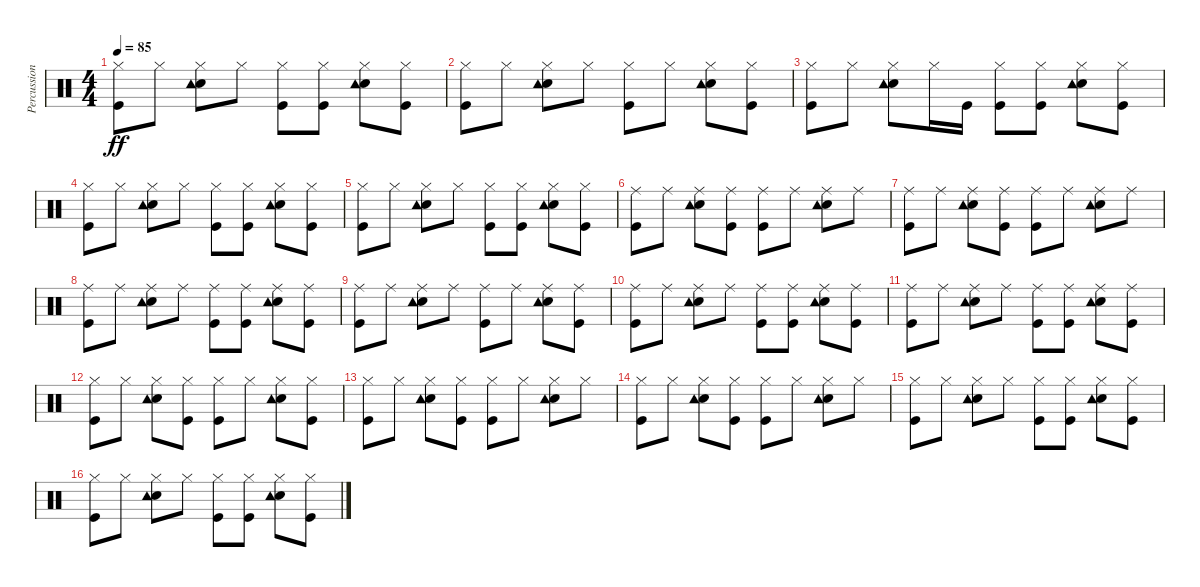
\track ("Percussion" "Percussion") {instrument percussion}
\staff {score}
\articulation defaults
\ts (4 4)
\tempo 85
\clef neutral
\ks c
("Kick (hit)" "Hi-Hat (closed)").8{dy ff} "Hi-Hat (closed)".8 ("Snare (hit) 2" "Hi-Hat (closed)" "Tambourine (hit)").8 "Hi-Hat (closed)".8 ("Kick (hit)" "Hi-Hat (closed)").8 ("Kick (hit)" "Hi-Hat (closed)").8 ("Snare (hit) 2" "Hi-Hat (closed)" "Tambourine (hit)").8 ("Kick (hit)" "Hi-Hat (closed)").8 |
("Kick (hit)" "Hi-Hat (closed)").8 "Hi-Hat (closed)".8 ("Snare (hit) 2" "Hi-Hat (closed)" "Tambourine (hit)").8 "Hi-Hat (closed)".8 ("Kick (hit)" "Hi-Hat (closed)").8 "Hi-Hat (closed)".8 ("Snare (hit) 2" "Hi-Hat (closed)" "Tambourine (hit)").8 ("Kick (hit)" "Hi-Hat (closed)").8 |
("Kick (hit)" "Hi-Hat (closed)").8 "Hi-Hat (closed)".8 ("Snare (hit) 2" "Hi-Hat (closed)" "Tambourine (hit)").8 "Hi-Hat (closed)".16 "Kick (hit)".16 ("Kick (hit)" "Hi-Hat (closed)").8 ("Kick (hit)" "Hi-Hat (closed)").8 ("Snare (hit) 2" "Hi-Hat (closed)" "Tambourine (hit)").8 ("Kick (hit)" "Hi-Hat (closed)").8 |
("Kick (hit)" "Hi-Hat (closed)").8 "Hi-Hat (closed)".8 ("Snare (hit) 2" "Hi-Hat (closed)" "Tambourine (hit)").8 "Hi-Hat (closed)".8 ("Kick (hit)" "Hi-Hat (closed)").8 ("Kick (hit)" "Hi-Hat (closed)").8 ("Snare (hit) 2" "Hi-Hat (closed)" "Tambourine (hit)").8 ("Kick (hit)" "Hi-Hat (closed)").8 |
("Kick (hit)" "Hi-Hat (closed)").8 "Hi-Hat (closed)".8 ("Snare (hit) 2" "Hi-Hat (closed)" "Tambourine (hit)").8 "Hi-Hat (closed)".8 ("Kick (hit)" "Hi-Hat (closed)").8 ("Kick (hit)" "Hi-Hat (closed)").8 ("Snare (hit) 2" "Hi-Hat (closed)" "Tambourine (hit)").8 ("Kick (hit)" "Hi-Hat (closed)").8 |
("Kick (hit)" "Ride (middle)").8 "Ride (middle)".8 ("Snare (hit) 2" "Ride (middle)" "Tambourine (hit)").8 ("Kick (hit)" "Ride (middle)").8 ("Kick (hit)" "Ride (middle)").8 "Ride (middle)".8 ("Snare (hit) 2" "Ride (middle)" "Tambourine (hit)").8 "Ride (middle)".8 |
("Kick (hit)" "Ride (middle)").8 "Ride (middle)".8 ("Snare (hit) 2" "Ride (middle)" "Tambourine (hit)").8 ("Kick (hit)" "Ride (middle)").8 ("Kick (hit)" "Ride (middle)").8 "Ride (middle)".8 ("Snare (hit) 2" "Ride (middle)" "Tambourine (hit)").8 "Ride (middle)".8 |
("Kick (hit)" "Ride (middle)").8 "Ride (middle)".8 ("Snare (hit) 2" "Ride (middle)" "Tambourine (hit)").8 "Ride (middle)".8 ("Kick (hit)" "Ride (middle)").8 ("Kick (hit)" "Ride (middle)").8 ("Snare (hit) 2" "Ride (middle)" "Tambourine (hit)").8 ("Kick (hit)" "Ride (middle)").8 |
("Kick (hit)" "Ride (middle)").8 "Ride (middle)".8 ("Snare (hit) 2" "Ride (middle)" "Tambourine (hit)").8 "Ride (middle)".8 ("Kick (hit)" "Ride (middle)").8 "Ride (middle)".8 ("Snare (hit) 2" "Ride (middle)" "Tambourine (hit)").8 ("Kick (hit)" "Ride (middle)").8 |
("Kick (hit)" "Ride (middle)").8 "Ride (middle)".8 ("Snare (hit) 2" "Ride (middle)" "Tambourine (hit)").8 "Ride (middle)".8 ("Kick (hit)" "Ride (middle)").8 ("Kick (hit)" "Ride (middle)").8 ("Snare (hit) 2" "Ride (middle)" "Tambourine (hit)").8 ("Kick (hit)" "Ride (middle)").8 |
("Kick (hit)" "Ride (middle)").8 "Ride (middle)".8 ("Snare (hit) 2" "Ride (middle)" "Tambourine (hit)").8 "Ride (middle)".8 ("Kick (hit)" "Ride (middle)").8 ("Kick (hit)" "Ride (middle)").8 ("Snare (hit) 2" "Ride (middle)" "Tambourine (hit)").8 ("Kick (hit)" "Ride (middle)").8 |
("Kick (hit)" "Hi-Hat (closed)").8 "Hi-Hat (closed)".8 ("Snare (hit) 2" "Hi-Hat (closed)" "Tambourine (hit)").8 ("Kick (hit)" "Hi-Hat (closed)").8 ("Kick (hit)" "Hi-Hat (closed)").8 "Hi-Hat (closed)".8 ("Snare (hit) 2" "Hi-Hat (closed)" "Tambourine (hit)").8 ("Kick (hit)" "Hi-Hat (closed)").8 |
("Kick (hit)" "Hi-Hat (closed)").8 "Hi-Hat (closed)".8 ("Snare (hit) 2" "Hi-Hat (closed)" "Tambourine (hit)").8 ("Kick (hit)" "Hi-Hat (closed)").8 ("Kick (hit)" "Hi-Hat (closed)").8 "Hi-Hat (closed)".8 ("Snare (hit) 2" "Hi-Hat (closed)" "Tambourine (hit)").8 "Hi-Hat (closed)".8 |
("Kick (hit)" "Hi-Hat (closed)").8 "Hi-Hat (closed)".8 ("Snare (hit) 2" "Hi-Hat (closed)" "Tambourine (hit)").8 ("Kick (hit)" "Hi-Hat (closed)").8 ("Kick (hit)" "Hi-Hat (closed)").8 "Hi-Hat (closed)".8 ("Snare (hit) 2" "Hi-Hat (closed)" "Tambourine (hit)").8 "Hi-Hat (closed)".8 |
("Kick (hit)" "Hi-Hat (closed)").8 "Hi-Hat (closed)".8 ("Snare (hit) 2" "Hi-Hat (closed)" "Tambourine (hit)").8 "Hi-Hat (closed)".8 ("Kick (hit)" "Hi-Hat (closed)").8 ("Kick (hit)" "Hi-Hat (closed)").8 ("Snare (hit) 2" "Hi-Hat (closed)" "Tambourine (hit)").8 ("Kick (hit)" "Hi-Hat (closed)").8 |
("Kick (hit)" "Hi-Hat (closed)").8 "Hi-Hat (closed)".8 ("Snare (hit) 2" "Hi-Hat (closed)" "Tambourine (hit)").8 "Hi-Hat (closed)".8 ("Kick (hit)" "Hi-Hat (closed)").8 ("Kick (hit)" "Hi-Hat (closed)").8 ("Snare (hit) 2" "Hi-Hat (closed)" "Tambourine (hit)").8 ("Kick (hit)" "Hi-Hat (closed)").8
